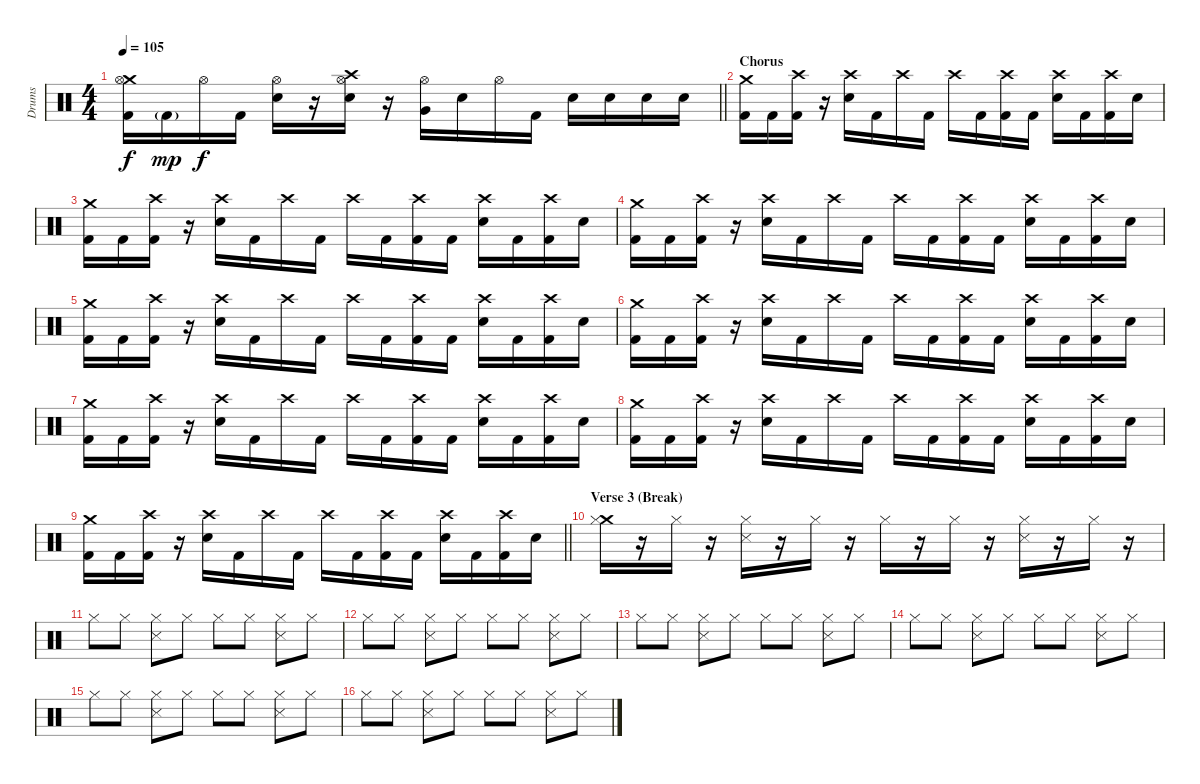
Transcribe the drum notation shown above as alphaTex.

\track ("Drums" "Drums") {instrument percussion}
\staff {score}
\articulation defaults
\ts (4 4)
\tempo 105
\clef neutral
\barLineRight lightlight
\ks c
("Crash medium (hit)" "Hi-Hat (open)" "Kick (hit) 2").16{dy f} "Kick (hit) 2"{g}.16{dy mp} "Hi-Hat (open)".16{dy f} "Kick (hit) 2".16 ("Hi-Hat (open)" "Electric Snare (hit)").16 r.16 ("Crash high (hit)" "Hi-Hat (open)" "Electric Snare (hit)").16 r.16 ("Hi-Hat (open)" "Very Low Tom (hit)").16 "Electric Snare (hit)".16 "Hi-Hat (open)".16 "Kick (hit) 2".16 "Electric Snare (hit)".16 "Electric Snare (hit)".16 "Electric Snare (hit)".16 "Electric Snare (hit)".16 |
\section ("" "Chorus")
("Crash medium (hit)" "Kick (hit) 2").16 "Kick (hit) 2".16 ("Crash high (hit)" "Kick (hit) 2").16 r.16 ("Crash high (hit)" "Electric Snare (hit)").16 "Kick (hit) 2".16 "Crash high (hit)".16 "Kick (hit) 2".16 "Crash high (hit)".16 "Kick (hit) 2".16 ("Crash high (hit)" "Kick (hit) 2").16 "Kick (hit) 2".16 ("Crash high (hit)" "Electric Snare (hit)").16 "Kick (hit) 2".16 ("Crash high (hit)" "Kick (hit) 2").16 "Electric Snare (hit)".16 |
("Crash medium (hit)" "Kick (hit) 2").16 "Kick (hit) 2".16 ("Crash high (hit)" "Kick (hit) 2").16 r.16 ("Crash high (hit)" "Electric Snare (hit)").16 "Kick (hit) 2".16 "Crash high (hit)".16 "Kick (hit) 2".16 "Crash high (hit)".16 "Kick (hit) 2".16 ("Crash high (hit)" "Kick (hit) 2").16 "Kick (hit) 2".16 ("Crash high (hit)" "Electric Snare (hit)").16 "Kick (hit) 2".16 ("Crash high (hit)" "Kick (hit) 2").16 "Electric Snare (hit)".16 |
("Crash medium (hit)" "Kick (hit) 2").16 "Kick (hit) 2".16 ("Crash high (hit)" "Kick (hit) 2").16 r.16 ("Crash high (hit)" "Electric Snare (hit)").16 "Kick (hit) 2".16 "Crash high (hit)".16 "Kick (hit) 2".16 "Crash high (hit)".16 "Kick (hit) 2".16 ("Crash high (hit)" "Kick (hit) 2").16 "Kick (hit) 2".16 ("Crash high (hit)" "Electric Snare (hit)").16 "Kick (hit) 2".16 ("Crash high (hit)" "Kick (hit) 2").16 "Electric Snare (hit)".16 |
("Crash medium (hit)" "Kick (hit) 2").16 "Kick (hit) 2".16 ("Crash high (hit)" "Kick (hit) 2").16 r.16 ("Crash high (hit)" "Electric Snare (hit)").16 "Kick (hit) 2".16 "Crash high (hit)".16 "Kick (hit) 2".16 "Crash high (hit)".16 "Kick (hit) 2".16 ("Crash high (hit)" "Kick (hit) 2").16 "Kick (hit) 2".16 ("Crash high (hit)" "Electric Snare (hit)").16 "Kick (hit) 2".16 ("Crash high (hit)" "Kick (hit) 2").16 "Electric Snare (hit)".16 |
("Crash medium (hit)" "Kick (hit) 2").16 "Kick (hit) 2".16 ("Crash high (hit)" "Kick (hit) 2").16 r.16 ("Crash high (hit)" "Electric Snare (hit)").16 "Kick (hit) 2".16 "Crash high (hit)".16 "Kick (hit) 2".16 "Crash high (hit)".16 "Kick (hit) 2".16 ("Crash high (hit)" "Kick (hit) 2").16 "Kick (hit) 2".16 ("Crash high (hit)" "Electric Snare (hit)").16 "Kick (hit) 2".16 ("Crash high (hit)" "Kick (hit) 2").16 "Electric Snare (hit)".16 |
("Crash medium (hit)" "Kick (hit) 2").16 "Kick (hit) 2".16 ("Crash high (hit)" "Kick (hit) 2").16 r.16 ("Crash high (hit)" "Electric Snare (hit)").16 "Kick (hit) 2".16 "Crash high (hit)".16 "Kick (hit) 2".16 "Crash high (hit)".16 "Kick (hit) 2".16 ("Crash high (hit)" "Kick (hit) 2").16 "Kick (hit) 2".16 ("Crash high (hit)" "Electric Snare (hit)").16 "Kick (hit) 2".16 ("Crash high (hit)" "Kick (hit) 2").16 "Electric Snare (hit)".16 |
("Crash medium (hit)" "Kick (hit) 2").16 "Kick (hit) 2".16 ("Crash high (hit)" "Kick (hit) 2").16 r.16 ("Crash high (hit)" "Electric Snare (hit)").16 "Kick (hit) 2".16 "Crash high (hit)".16 "Kick (hit) 2".16 "Crash high (hit)".16 "Kick (hit) 2".16 ("Crash high (hit)" "Kick (hit) 2").16 "Kick (hit) 2".16 ("Crash high (hit)" "Electric Snare (hit)").16 "Kick (hit) 2".16 ("Crash high (hit)" "Kick (hit) 2").16 "Electric Snare (hit)".16 |
\barLineRight lightlight
("Crash medium (hit)" "Kick (hit) 2").16 "Kick (hit) 2".16 ("Crash high (hit)" "Kick (hit) 2").16 r.16 ("Crash high (hit)" "Electric Snare (hit)").16 "Kick (hit) 2".16 "Crash high (hit)".16 "Kick (hit) 2".16 "Crash high (hit)".16 "Kick (hit) 2".16 ("Crash high (hit)" "Kick (hit) 2").16 "Kick (hit) 2".16 ("Crash high (hit)" "Electric Snare (hit)").16 "Kick (hit) 2".16 ("Crash high (hit)" "Kick (hit) 2").16 "Electric Snare (hit)".16 |
\section ("" "Verse 3 (Break)")
("Crash medium (hit)" "Hi-Hat (closed)").16 r.16 "Hi-Hat (closed)".16 r.16 ("Hi-Hat (closed)" "Snare (side stick) 3").16 r.16 "Hi-Hat (closed)".16 r.16 "Hi-Hat (closed)".16 r.16 "Hi-Hat (closed)".16 r.16 ("Hi-Hat (closed)" "Snare (side stick) 3").16 r.16 "Hi-Hat (closed)".16 r.16 |
"Hi-Hat (closed)".8 "Hi-Hat (closed)".8 ("Hi-Hat (closed)" "Snare (side stick) 3").8 "Hi-Hat (closed)".8 "Hi-Hat (closed)".8 "Hi-Hat (closed)".8 ("Hi-Hat (closed)" "Snare (side stick) 3").8 "Hi-Hat (closed)".8 |
"Hi-Hat (closed)".8 "Hi-Hat (closed)".8 ("Hi-Hat (closed)" "Snare (side stick) 3").8 "Hi-Hat (closed)".8 "Hi-Hat (closed)".8 "Hi-Hat (closed)".8 ("Hi-Hat (closed)" "Snare (side stick) 3").8 "Hi-Hat (closed)".8 |
"Hi-Hat (closed)".8 "Hi-Hat (closed)".8 ("Hi-Hat (closed)" "Snare (side stick) 3").8 "Hi-Hat (closed)".8 "Hi-Hat (closed)".8 "Hi-Hat (closed)".8 ("Hi-Hat (closed)" "Snare (side stick) 3").8 "Hi-Hat (closed)".8 |
"Hi-Hat (closed)".8 "Hi-Hat (closed)".8 ("Hi-Hat (closed)" "Snare (side stick) 3").8 "Hi-Hat (closed)".8 "Hi-Hat (closed)".8 "Hi-Hat (closed)".8 ("Hi-Hat (closed)" "Snare (side stick) 3").8 "Hi-Hat (closed)".8 |
"Hi-Hat (closed)".8 "Hi-Hat (closed)".8 ("Hi-Hat (closed)" "Snare (side stick) 3").8 "Hi-Hat (closed)".8 "Hi-Hat (closed)".8 "Hi-Hat (closed)".8 ("Hi-Hat (closed)" "Snare (side stick) 3").8 "Hi-Hat (closed)".8 |
"Hi-Hat (closed)".8 "Hi-Hat (closed)".8 ("Hi-Hat (closed)" "Snare (side stick) 3").8 "Hi-Hat (closed)".8 "Hi-Hat (closed)".8 "Hi-Hat (closed)".8 ("Hi-Hat (closed)" "Snare (side stick) 3").8 "Hi-Hat (closed)".8
